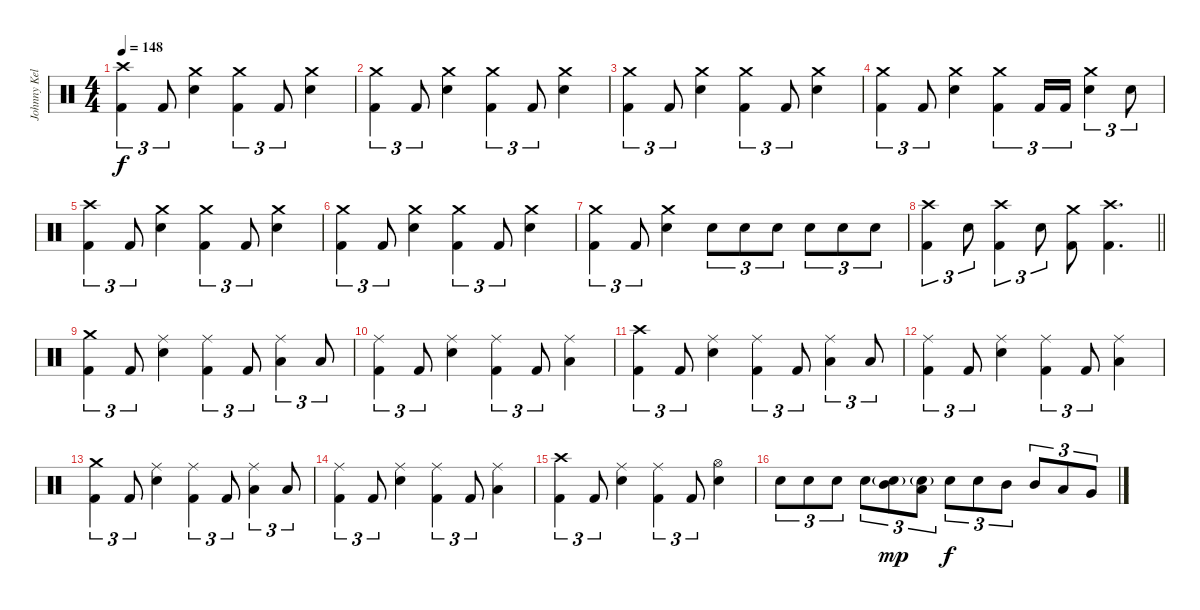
\track ("Johnny Kelly" "Johnny Kel") {instrument percussion}
\staff {score}
\articulation defaults
\ts (4 4)
\section ("" "")
\tempo 148
\clef neutral
\ks c
("Crash high (hit)" "Kick (hit) 2").4{tu (3 2) dy f} "Kick (hit) 2".8{tu (3 2)} ("Crash medium (hit)" "Electric Snare (hit)").4 ("Crash medium (hit)" "Kick (hit) 2").4{tu (3 2)} "Kick (hit) 2".8{tu (3 2)} ("Crash medium (hit)" "Electric Snare (hit)").4 |
("Crash medium (hit)" "Kick (hit) 2").4{tu (3 2)} "Kick (hit) 2".8{tu (3 2)} ("Crash medium (hit)" "Electric Snare (hit)").4 ("Crash medium (hit)" "Kick (hit) 2").4{tu (3 2)} "Kick (hit) 2".8{tu (3 2)} ("Crash medium (hit)" "Electric Snare (hit)").4 |
("Crash medium (hit)" "Kick (hit) 2").4{tu (3 2)} "Kick (hit) 2".8{tu (3 2)} ("Crash medium (hit)" "Electric Snare (hit)").4 ("Crash medium (hit)" "Kick (hit) 2").4{tu (3 2)} "Kick (hit) 2".8{tu (3 2)} ("Crash medium (hit)" "Electric Snare (hit)").4 |
("Crash medium (hit)" "Kick (hit) 2").4{tu (3 2)} "Kick (hit) 2".8{tu (3 2)} ("Crash medium (hit)" "Electric Snare (hit)").4 ("Crash medium (hit)" "Kick (hit) 2").4{tu (3 2)} "Kick (hit) 2".16{tu (3 2)} "Kick (hit) 2".16{tu (3 2)} ("Crash medium (hit)" "Electric Snare (hit)").4{tu (3 2)} "Electric Snare (hit)".8{tu (3 2)} |
("Crash high (hit)" "Kick (hit) 2").4{tu (3 2)} "Kick (hit) 2".8{tu (3 2)} ("Crash medium (hit)" "Electric Snare (hit)").4 ("Crash medium (hit)" "Kick (hit) 2").4{tu (3 2)} "Kick (hit) 2".8{tu (3 2)} ("Crash medium (hit)" "Electric Snare (hit)").4 |
("Crash medium (hit)" "Kick (hit) 2").4{tu (3 2)} "Kick (hit) 2".8{tu (3 2)} ("Crash medium (hit)" "Electric Snare (hit)").4 ("Crash medium (hit)" "Kick (hit) 2").4{tu (3 2)} "Kick (hit) 2".8{tu (3 2)} ("Crash medium (hit)" "Electric Snare (hit)").4 |
("Crash medium (hit)" "Kick (hit) 2").4{tu (3 2)} "Kick (hit) 2".8{tu (3 2)} ("Crash medium (hit)" "Electric Snare (hit)").4 "Electric Snare (hit)".8{tu (3 2)} "Electric Snare (hit)".8{tu (3 2)} "Electric Snare (hit)".8{tu (3 2)} "Electric Snare (hit)".8{tu (3 2)} "Electric Snare (hit)".8{tu (3 2)} "Electric Snare (hit)".8{tu (3 2)} |
\barLineRight lightlight
("Crash high (hit)" "Kick (hit) 2").4{tu (3 2)} "Electric Snare (hit)".8{tu (3 2)} ("Crash high (hit)" "Kick (hit) 2").4{tu (3 2)} "Electric Snare (hit)".8{tu (3 2)} ("Crash medium (hit)" "Kick (hit) 2").8 ("Crash high (hit)" "Kick (hit) 2").4{d} |
\section ("" "")
("Crash medium (hit)" "Kick (hit) 2").4{tu (3 2)} "Kick (hit) 2".8{tu (3 2)} ("Ride (middle)" "Electric Snare (hit)").4 ("Ride (middle)" "Kick (hit) 2").4{tu (3 2)} "Kick (hit) 2".8{tu (3 2)} ("Ride (middle)" "Low Tom (hit)").4{tu (3 2)} "Low Tom (hit)".8{tu (3 2)} |
("Ride (middle)" "Kick (hit) 2").4{tu (3 2)} "Kick (hit) 2".8{tu (3 2)} ("Ride (middle)" "Electric Snare (hit)").4 ("Ride (middle)" "Kick (hit) 2").4{tu (3 2)} "Kick (hit) 2".8{tu (3 2)} ("Ride (middle)" "Low Tom (hit)").4 |
("Crash high (hit)" "Kick (hit) 2").4{tu (3 2)} "Kick (hit) 2".8{tu (3 2)} ("Ride (middle)" "Electric Snare (hit)").4 ("Ride (middle)" "Kick (hit) 2").4{tu (3 2)} "Kick (hit) 2".8{tu (3 2)} ("Ride (middle)" "Low Tom (hit)").4{tu (3 2)} "Low Tom (hit)".8{tu (3 2)} |
("Ride (middle)" "Kick (hit) 2").4{tu (3 2)} "Kick (hit) 2".8{tu (3 2)} ("Ride (middle)" "Electric Snare (hit)").4 ("Ride (middle)" "Kick (hit) 2").4{tu (3 2)} "Kick (hit) 2".8{tu (3 2)} ("Ride (middle)" "Low Tom (hit)").4 |
("Crash medium (hit)" "Kick (hit) 2").4{tu (3 2)} "Kick (hit) 2".8{tu (3 2)} ("Ride (middle)" "Electric Snare (hit)").4 ("Ride (middle)" "Kick (hit) 2").4{tu (3 2)} "Kick (hit) 2".8{tu (3 2)} ("Ride (middle)" "Low Tom (hit)").4{tu (3 2)} "Low Tom (hit)".8{tu (3 2)} |
("Ride (middle)" "Kick (hit) 2").4{tu (3 2)} "Kick (hit) 2".8{tu (3 2)} ("Ride (middle)" "Electric Snare (hit)").4 ("Ride (middle)" "Kick (hit) 2").4{tu (3 2)} "Kick (hit) 2".8{tu (3 2)} ("Ride (middle)" "Low Tom (hit)").4 |
("Crash high (hit)" "Kick (hit) 2").4{tu (3 2)} "Kick (hit) 2".8{tu (3 2)} ("Ride (middle)" "Electric Snare (hit)").4 ("Ride (middle)" "Kick (hit) 2").4{tu (3 2)} "Kick (hit) 2".8{tu (3 2)} ("Hi-Hat (open)" "Electric Snare (hit)").4 |
"Electric Snare (hit)".8{tu (3 2)} "Electric Snare (hit)".8{tu (3 2)} "Electric Snare (hit)".8{tu (3 2)} "Electric Snare (hit)".8{tu (3 2)} ("Mid Tom (hit)" "Electric Snare (hit)"{g}).8{tu (3 2) dy mp} ("Low Tom (hit)" "Electric Snare (hit)"{g}).8{tu (3 2)} "Electric Snare (hit)".8{tu (3 2) dy f} "Electric Snare (hit)".8{tu (3 2)} "Mid Tom (hit)".8{tu (3 2)} "Mid Tom (hit)".8{tu (3 2)} "Low Tom (hit)".8{tu (3 2)} "Very Low Tom (hit)".8{tu (3 2)}
